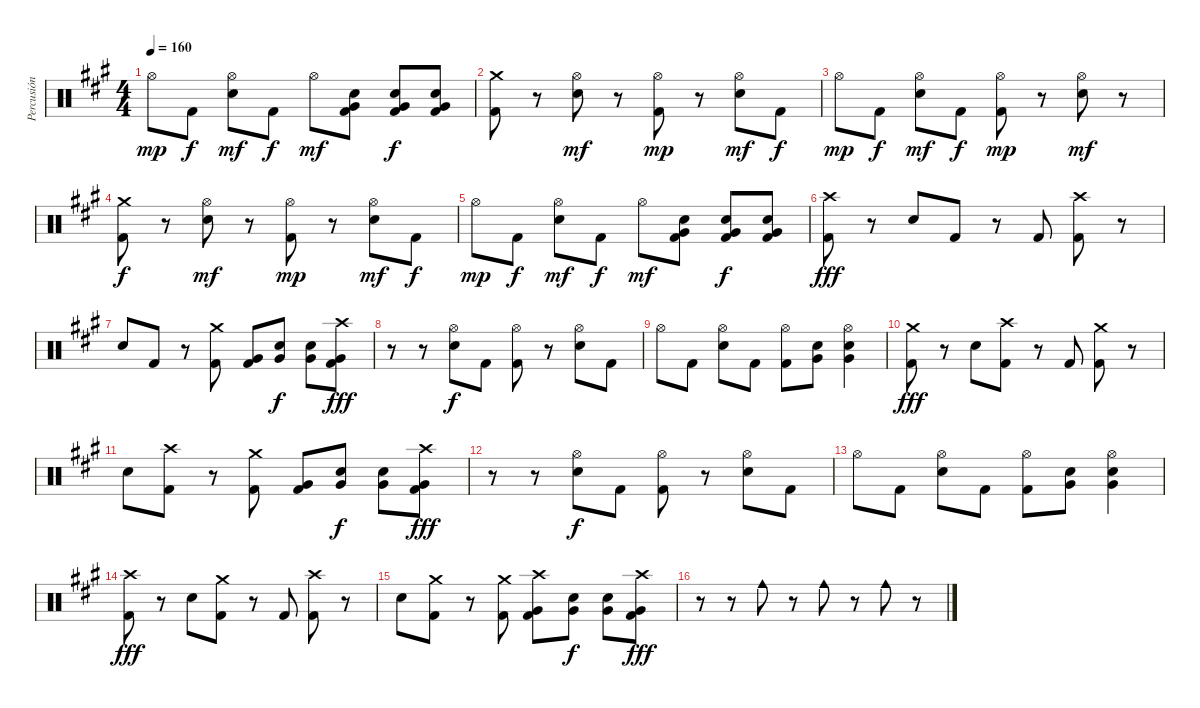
\track ("Percusión" "Percusión") {instrument percussion}
\staff {score}
\articulation defaults
\ts (4 4)
\tempo 160
\clef neutral
\ks a "Hi-Hat (open)".8{dy mp} "Kick (hit) 2".8{dy f}
("Hi-Hat (open)" "Electric Snare (hit)").8{dy mf} "Kick (hit) 2".8{dy f} "Hi-Hat (open)".8{dy mf} ("Very Low Tom (hit)" "Electric Snare (hit)" "Kick (hit) 2").8 ("Very Low Tom (hit)" "Electric Snare (hit)" "Kick (hit) 2").8{dy f} ("Very Low Tom (hit)" "Electric Snare (hit)" "Kick (hit) 2").8 |
("Crash medium (hit)" "Kick (hit) 2").8 r.8 ("Hi-Hat (open)" "Electric Snare (hit)").8{dy mf} r.8 ("Hi-Hat (open)" "Kick (hit) 2").8{dy mp} r.8 ("Hi-Hat (open)" "Electric Snare (hit)").8{dy mf} "Kick (hit) 2".8{dy f} |
"Hi-Hat (open)".8{dy mp} "Kick (hit) 2".8{dy f} ("Hi-Hat (open)" "Electric Snare (hit)").8{dy mf} "Kick (hit) 2".8{dy f} ("Hi-Hat (open)" "Kick (hit) 2").8{dy mp} r.8 ("Hi-Hat (open)" "Electric Snare (hit)").8{dy mf} r.8 |
("Crash medium (hit)" "Kick (hit) 2").8{dy f} r.8 ("Hi-Hat (open)" "Electric Snare (hit)").8{dy mf} r.8 ("Hi-Hat (open)" "Kick (hit) 2").8{dy mp} r.8 ("Hi-Hat (open)" "Electric Snare (hit)").8{dy mf} "Kick (hit) 2".8{dy f} |
"Hi-Hat (open)".8{dy mp} "Kick (hit) 2".8{dy f} ("Hi-Hat (open)" "Electric Snare (hit)").8{dy mf} "Kick (hit) 2".8{dy f} "Hi-Hat (open)".8{dy mf} ("Very Low Tom (hit)" "Electric Snare (hit)" "Kick (hit) 2").8 ("Very Low Tom (hit)" "Electric Snare (hit)" "Kick (hit) 2").8{dy f} ("Very Low Tom (hit)" "Electric Snare (hit)" "Kick (hit) 2").8 |
("Crash high (hit)" "Kick (hit) 2").8{dy fff} r.8 "Electric Snare (hit)".8 "Kick (hit) 2".8 r.8 "Kick (hit) 2".8 ("Crash high (hit)" "Kick (hit) 2").8 r.8 |
"Electric Snare (hit)".8 "Kick (hit) 2".8 r.8 ("Crash medium (hit)" "Kick (hit) 2").8 ("Very Low Tom (hit)" "Kick (hit) 2").8 ("Very Low Tom (hit)" "Electric Snare (hit)").8{dy f} ("Very Low Tom (hit)" "Electric Snare (hit)").8 ("Crash high (hit)" "Very Low Tom (hit)" "Kick (hit) 2").8{dy fff} |
r.8 r.8 ("Hi-Hat (open)" "Electric Snare (hit)").8{dy f} "Kick (hit) 2".8 ("Hi-Hat (open)" "Kick (hit) 2").8 r.8 ("Hi-Hat (open)" "Electric Snare (hit)").8 "Kick (hit) 2".8 |
"Hi-Hat (open)".8 "Kick (hit) 2".8 ("Hi-Hat (open)" "Electric Snare (hit)").8 "Kick (hit) 2".8 ("Hi-Hat (open)" "Kick (hit) 2").8 ("Very Low Tom (hit)" "Electric Snare (hit)").8 ("Very Low Tom (hit)" "Hi-Hat (open)" "Electric Snare (hit)").4 |
("Crash medium (hit)" "Kick (hit) 2").8{dy fff} r.8 "Electric Snare (hit)".8 ("Crash high (hit)" "Kick (hit) 2").8 r.8 "Kick (hit) 2".8 ("Crash medium (hit)" "Kick (hit) 2").8 r.8 |
"Electric Snare (hit)".8 ("Crash high (hit)" "Kick (hit) 2").8 r.8 ("Crash medium (hit)" "Kick (hit) 2").8 ("Very Low Tom (hit)" "Kick (hit) 2").8 ("Very Low Tom (hit)" "Electric Snare (hit)").8{dy f} ("Very Low Tom (hit)" "Electric Snare (hit)").8 ("Crash high (hit)" "Very Low Tom (hit)" "Kick (hit) 2").8{dy fff} |
r.8 r.8 ("Hi-Hat (open)" "Electric Snare (hit)").8{dy f} "Kick (hit) 2".8 ("Hi-Hat (open)" "Kick (hit) 2").8 r.8 ("Hi-Hat (open)" "Electric Snare (hit)").8 "Kick (hit) 2".8 |
"Hi-Hat (open)".8 "Kick (hit) 2".8 ("Hi-Hat (open)" "Electric Snare (hit)").8 "Kick (hit) 2".8 ("Hi-Hat (open)" "Kick (hit) 2").8 ("Very Low Tom (hit)" "Electric Snare (hit)").8 ("Very Low Tom (hit)" "Hi-Hat (open)" "Electric Snare (hit)").4 |
("Crash high (hit)" "Kick (hit) 2").8{dy fff} r.8 "Electric Snare (hit)".8 ("Crash medium (hit)" "Kick (hit) 2").8 r.8 "Kick (hit) 2".8 ("Crash high (hit)" "Kick (hit) 2").8 r.8 |
"Electric Snare (hit)".8 ("Crash medium (hit)" "Kick (hit) 2").8 r.8 ("Crash medium (hit)" "Kick (hit) 2").8 ("Crash high (hit)" "Very Low Tom (hit)" "Kick (hit) 2").8 ("Very Low Tom (hit)" "Electric Snare (hit)").8{dy f} ("Very Low Tom (hit)" "Electric Snare (hit)").8 ("Crash high (hit)" "Very Low Tom (hit)" "Kick (hit) 2").8{dy fff} |
r.8 r.8 "Cowbell medium (hit)".8 r.8 "Cowbell medium (hit)".8 r.8 "Cowbell medium (hit)".8 r.8
